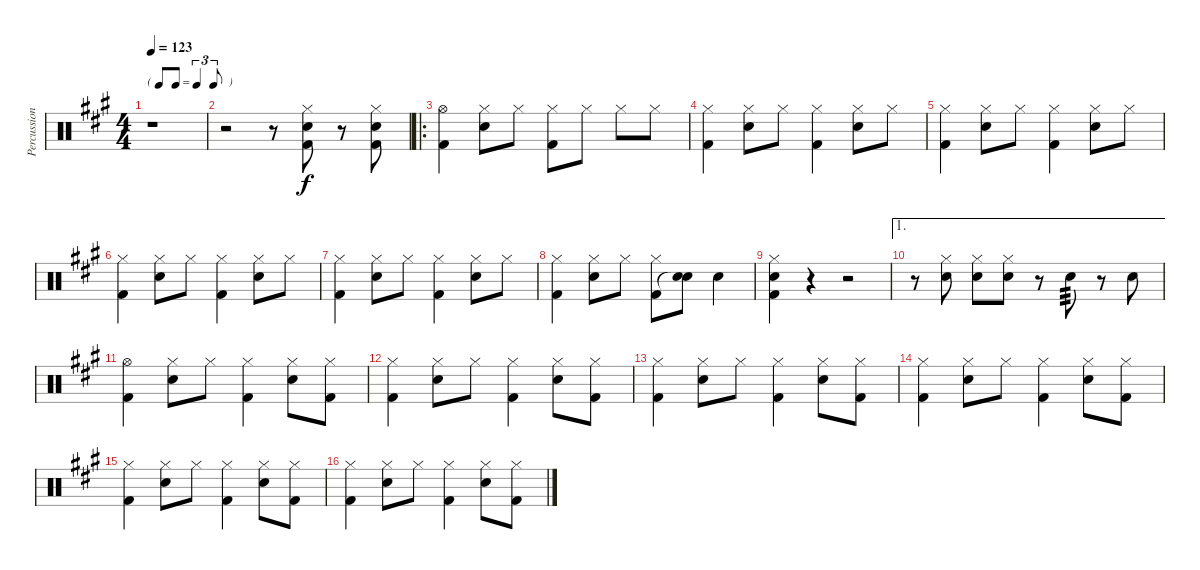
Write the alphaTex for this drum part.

\track ("Percussion" "Percussion") {instrument percussion}
\staff {score}
\articulation defaults
\ts (4 4)
\tf triplet8th
\tempo 123
\clef neutral
\ks a
r.1{dy f} |
r.2 r.8 ("Hi-Hat (closed)" "Snare (hit) 2" "Kick (hit) 2").8 r.8 ("Hi-Hat (closed)" "Snare (hit) 2" "Kick (hit) 2").8 |
\ro
("Hi-Hat (open)" "Kick (hit) 2").4 ("Hi-Hat (closed)" "Snare (hit) 2").8 "Hi-Hat (closed)".8 ("Hi-Hat (closed)" "Kick (hit) 2").8 "Hi-Hat (closed)".8 "Hi-Hat (closed)".8 "Hi-Hat (closed)".8 |
("Hi-Hat (closed)" "Kick (hit) 2").4 ("Hi-Hat (closed)" "Snare (hit) 2").8 "Hi-Hat (closed)".8 ("Hi-Hat (closed)" "Kick (hit) 2").4 ("Hi-Hat (closed)" "Snare (hit) 2").8 "Hi-Hat (closed)".8 |
("Hi-Hat (closed)" "Kick (hit) 2").4 ("Hi-Hat (closed)" "Snare (hit) 2").8 "Hi-Hat (closed)".8 ("Hi-Hat (closed)" "Kick (hit) 2").4 ("Hi-Hat (closed)" "Snare (hit) 2").8 "Hi-Hat (closed)".8 |
("Hi-Hat (closed)" "Kick (hit) 2").4 ("Hi-Hat (closed)" "Snare (hit) 2").8 "Hi-Hat (closed)".8 ("Hi-Hat (closed)" "Kick (hit) 2").4 ("Hi-Hat (closed)" "Snare (hit) 2").8 "Hi-Hat (closed)".8 |
("Hi-Hat (closed)" "Kick (hit) 2").4 ("Hi-Hat (closed)" "Snare (hit) 2").8 "Hi-Hat (closed)".8 ("Hi-Hat (closed)" "Kick (hit) 2").4 ("Hi-Hat (closed)" "Snare (hit) 2").8 "Hi-Hat (closed)".8 |
("Hi-Hat (closed)" "Kick (hit) 2").4 ("Hi-Hat (closed)" "Snare (hit) 2").8 "Hi-Hat (closed)".8 ("Hi-Hat (closed)" "Kick (hit) 2").8 ("Snare (hit) 2" "Snare (hit)"{t}).8 "Snare (hit) 2".4 |
("Hi-Hat (closed)" "Snare (hit) 2" "Kick (hit) 2").4 r.4 r.2 |
\ae 1
r.8 ("Hi-Hat (closed)" "Snare (hit) 2").8 ("Hi-Hat (closed)" "Snare (hit) 2").8 ("Hi-Hat (closed)" "Snare (hit) 2").8 r.8 "Snare (hit) 2".8{tp 3} r.8 "Snare (hit) 2".8 |
("Hi-Hat (open)" "Kick (hit) 2").4 ("Hi-Hat (closed)" "Snare (hit) 2").8 "Hi-Hat (closed)".8 ("Hi-Hat (closed)" "Kick (hit) 2").4 ("Hi-Hat (closed)" "Snare (hit) 2").8 ("Hi-Hat (closed)" "Kick (hit) 2").8 |
("Hi-Hat (closed)" "Kick (hit) 2").4 ("Hi-Hat (closed)" "Snare (hit) 2").8 "Hi-Hat (closed)".8 ("Hi-Hat (closed)" "Kick (hit) 2").4 ("Hi-Hat (closed)" "Snare (hit) 2").8 ("Hi-Hat (closed)" "Kick (hit) 2").8 |
("Hi-Hat (closed)" "Kick (hit) 2").4 ("Hi-Hat (closed)" "Snare (hit) 2").8 "Hi-Hat (closed)".8 ("Hi-Hat (closed)" "Kick (hit) 2").4 ("Hi-Hat (closed)" "Snare (hit) 2").8 ("Hi-Hat (closed)" "Kick (hit) 2").8 |
("Hi-Hat (closed)" "Kick (hit) 2").4 ("Hi-Hat (closed)" "Snare (hit) 2").8 "Hi-Hat (closed)".8 ("Hi-Hat (closed)" "Kick (hit) 2").4 ("Hi-Hat (closed)" "Snare (hit) 2").8 ("Hi-Hat (closed)" "Kick (hit) 2").8 |
("Hi-Hat (closed)" "Kick (hit) 2").4 ("Hi-Hat (closed)" "Snare (hit) 2").8 "Hi-Hat (closed)".8 ("Hi-Hat (closed)" "Kick (hit) 2").4 ("Hi-Hat (closed)" "Snare (hit) 2").8 ("Hi-Hat (closed)" "Kick (hit) 2").8 |
("Hi-Hat (closed)" "Kick (hit) 2").4 ("Hi-Hat (closed)" "Snare (hit) 2").8 "Hi-Hat (closed)".8 ("Hi-Hat (closed)" "Kick (hit) 2").4 ("Hi-Hat (closed)" "Snare (hit) 2").8 ("Hi-Hat (closed)" "Kick (hit) 2").8
